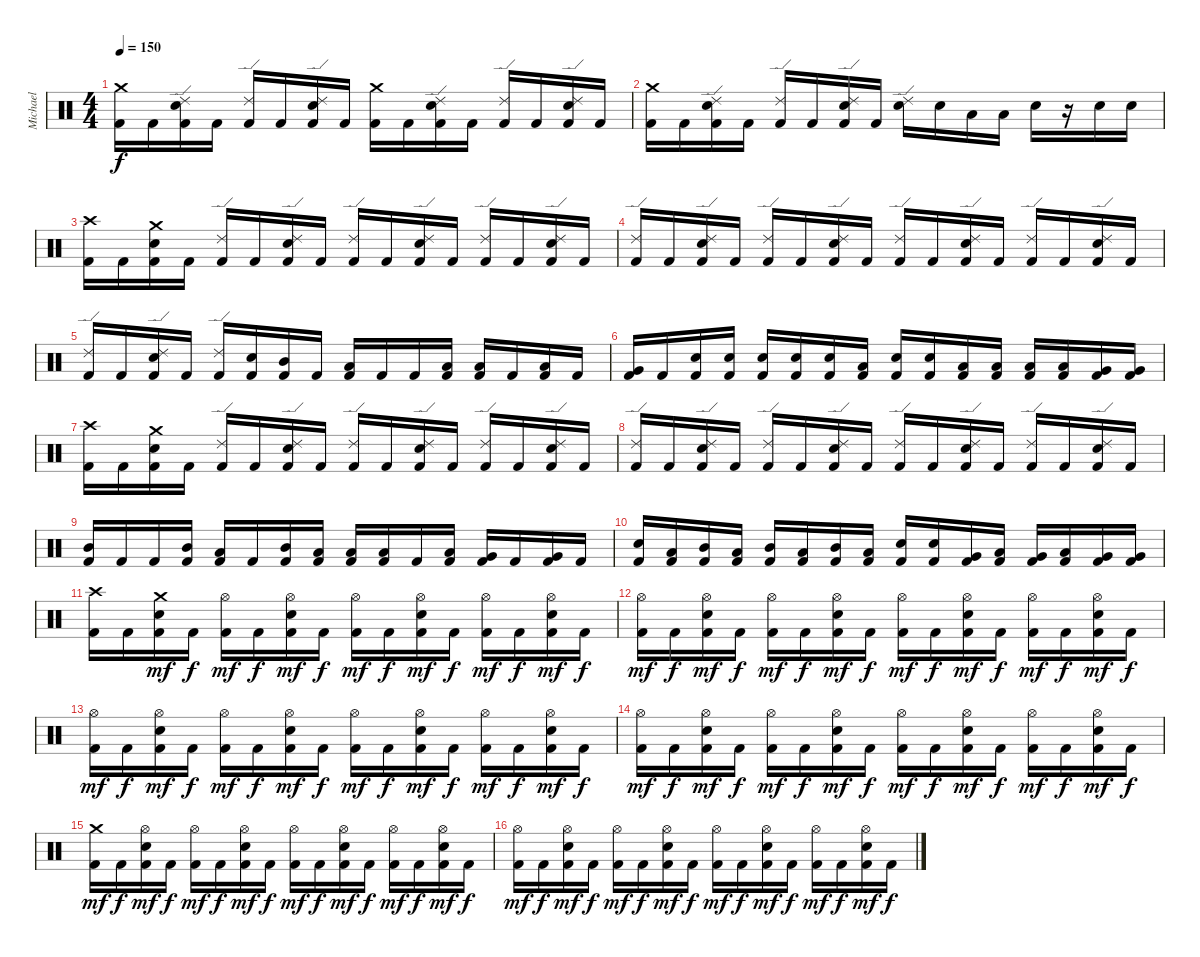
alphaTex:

\track ("Michael" "Michael") {instrument percussion}
\staff {score}
\articulation defaults
\ts (4 4)
\tempo 150
\clef neutral
\ks c
("Crash medium (hit)" "Kick (hit) 2").16{dy f} "Kick (hit) 2".16 ("Ride (edge) 2" "Electric Snare (hit)" "Kick (hit) 2").16 "Kick (hit) 2".16 ("Ride (edge) 2" "Kick (hit) 2").16 "Kick (hit) 2".16 ("Ride (edge) 2" "Electric Snare (hit)" "Kick (hit) 2").16 "Kick (hit) 2".16 ("Crash medium (hit)" "Kick (hit) 2").16 "Kick (hit) 2".16 ("Ride (edge) 2" "Electric Snare (hit)" "Kick (hit) 2").16 "Kick (hit) 2".16 ("Ride (edge) 2" "Kick (hit) 2").16 "Kick (hit) 2".16 ("Ride (edge) 2" "Electric Snare (hit)" "Kick (hit) 2").16 "Kick (hit) 2".16 |
("Crash medium (hit)" "Kick (hit) 2").16 "Kick (hit) 2".16 ("Ride (edge) 2" "Electric Snare (hit)" "Kick (hit) 2").16 "Kick (hit) 2".16 ("Ride (edge) 2" "Kick (hit) 2").16 "Kick (hit) 2".16 ("Ride (edge) 2" "Electric Snare (hit)" "Kick (hit) 2").16 "Kick (hit) 2".16 ("Ride (edge) 2" "Electric Snare (hit)").16 "Electric Snare (hit)".16 "Low Tom (hit)".16 "Low Tom (hit)".16 "Electric Snare (hit)".16 r.16 "Electric Snare (hit)".16 "Electric Snare (hit)".16 |
("Crash high (hit)" "Kick (hit) 2").16 "Kick (hit) 2".16 ("Crash medium (hit)" "Electric Snare (hit)" "Kick (hit) 2").16 "Kick (hit) 2".16 ("Ride (edge) 2" "Kick (hit) 2").16 "Kick (hit) 2".16 ("Ride (edge) 2" "Electric Snare (hit)" "Kick (hit) 2").16 "Kick (hit) 2".16 ("Ride (edge) 2" "Kick (hit) 2").16 "Kick (hit) 2".16 ("Ride (edge) 2" "Electric Snare (hit)" "Kick (hit) 2").16 "Kick (hit) 2".16 ("Ride (edge) 2" "Kick (hit) 2").16 "Kick (hit) 2".16 ("Ride (edge) 2" "Electric Snare (hit)" "Kick (hit) 2").16 "Kick (hit) 2".16 |
("Ride (edge) 2" "Kick (hit) 2").16 "Kick (hit) 2".16 ("Ride (edge) 2" "Electric Snare (hit)" "Kick (hit) 2").16 "Kick (hit) 2".16 ("Ride (edge) 2" "Kick (hit) 2").16 "Kick (hit) 2".16 ("Ride (edge) 2" "Electric Snare (hit)" "Kick (hit) 2").16 "Kick (hit) 2".16 ("Ride (edge) 2" "Kick (hit) 2").16 "Kick (hit) 2".16 ("Ride (edge) 2" "Electric Snare (hit)" "Kick (hit) 2").16 "Kick (hit) 2".16 ("Ride (edge) 2" "Kick (hit) 2").16 "Kick (hit) 2".16 ("Ride (edge) 2" "Electric Snare (hit)" "Kick (hit) 2").16 "Kick (hit) 2".16 |
("Ride (edge) 2" "Kick (hit) 2").16 "Kick (hit) 2".16 ("Ride (edge) 2" "Electric Snare (hit)" "Kick (hit) 2").16 "Kick (hit) 2".16 ("Ride (edge) 2" "Kick (hit) 2").16 ("Electric Snare (hit)" "Kick (hit) 2").16 ("Mid Tom (hit)" "Kick (hit) 2").16 "Kick (hit) 2".16 ("Low Tom (hit)" "Kick (hit) 2").16 "Kick (hit) 2".16 "Kick (hit) 2".16 ("Low Tom (hit)" "Kick (hit) 2").16 ("Low Tom (hit)" "Kick (hit) 2").16 "Kick (hit) 2".16 ("Low Tom (hit)" "Kick (hit) 2").16 "Kick (hit) 2".16 |
("Very Low Tom (hit)" "Kick (hit) 2").16 "Kick (hit) 2".16 ("Electric Snare (hit)" "Kick (hit) 2").16 ("Electric Snare (hit)" "Kick (hit) 2").16 ("Electric Snare (hit)" "Kick (hit) 2").16 ("Electric Snare (hit)" "Kick (hit) 2").16 ("Electric Snare (hit)" "Kick (hit) 2").16 ("Low Tom (hit)" "Kick (hit) 2").16 ("Electric Snare (hit)" "Kick (hit) 2").16 ("Electric Snare (hit)" "Kick (hit) 2").16 ("Low Tom (hit)" "Kick (hit) 2").16 ("Low Tom (hit)" "Kick (hit) 2").16 ("Low Tom (hit)" "Kick (hit) 2").16 ("Low Tom (hit)" "Kick (hit) 2").16 ("Very Low Tom (hit)" "Kick (hit) 2").16 ("Very Low Tom (hit)" "Kick (hit) 2").16 |
("Crash high (hit)" "Kick (hit) 2").16 "Kick (hit) 2".16 ("Crash medium (hit)" "Electric Snare (hit)" "Kick (hit) 2").16 "Kick (hit) 2".16 ("Ride (edge) 2" "Kick (hit) 2").16 "Kick (hit) 2".16 ("Ride (edge) 2" "Electric Snare (hit)" "Kick (hit) 2").16 "Kick (hit) 2".16 ("Ride (edge) 2" "Kick (hit) 2").16 "Kick (hit) 2".16 ("Ride (edge) 2" "Electric Snare (hit)" "Kick (hit) 2").16 "Kick (hit) 2".16 ("Ride (edge) 2" "Kick (hit) 2").16 "Kick (hit) 2".16 ("Ride (edge) 2" "Electric Snare (hit)" "Kick (hit) 2").16 "Kick (hit) 2".16 |
("Ride (edge) 2" "Kick (hit) 2").16 "Kick (hit) 2".16 ("Ride (edge) 2" "Electric Snare (hit)" "Kick (hit) 2").16 "Kick (hit) 2".16 ("Ride (edge) 2" "Kick (hit) 2").16 "Kick (hit) 2".16 ("Ride (edge) 2" "Electric Snare (hit)" "Kick (hit) 2").16 "Kick (hit) 2".16 ("Ride (edge) 2" "Kick (hit) 2").16 "Kick (hit) 2".16 ("Ride (edge) 2" "Electric Snare (hit)" "Kick (hit) 2").16 "Kick (hit) 2".16 ("Ride (edge) 2" "Kick (hit) 2").16 "Kick (hit) 2".16 ("Ride (edge) 2" "Electric Snare (hit)" "Kick (hit) 2").16 "Kick (hit) 2".16 |
("Mid Tom (hit)" "Kick (hit) 2").16 "Kick (hit) 2".16 "Kick (hit) 2".16 ("Mid Tom (hit)" "Kick (hit) 2").16 ("Low Tom (hit)" "Kick (hit) 2").16 "Kick (hit) 2".16 ("Mid Tom (hit)" "Kick (hit) 2").16 ("Low Tom (hit)" "Kick (hit) 2").16 ("Low Tom (hit)" "Kick (hit) 2").16 ("Low Tom (hit)" "Kick (hit) 2").16 "Kick (hit) 2".16 ("Low Tom (hit)" "Kick (hit) 2").16 ("Very Low Tom (hit)" "Kick (hit) 2").16 "Kick (hit) 2".16 ("Very Low Tom (hit)" "Kick (hit) 2").16 "Kick (hit) 2".16 |
("Electric Snare (hit)" "Kick (hit) 2").16 ("Low Tom (hit)" "Kick (hit) 2").16 ("Mid Tom (hit)" "Kick (hit) 2").16 ("Low Tom (hit)" "Kick (hit) 2").16 ("Mid Tom (hit)" "Kick (hit) 2").16 ("Low Tom (hit)" "Kick (hit) 2").16 ("Mid Tom (hit)" "Kick (hit) 2").16 ("Low Tom (hit)" "Kick (hit) 2").16 ("Electric Snare (hit)" "Kick (hit) 2").16 ("Electric Snare (hit)" "Kick (hit) 2").16 ("Very Low Tom (hit)" "Kick (hit) 2").16 ("Low Tom (hit)" "Kick (hit) 2").16 ("Very Low Tom (hit)" "Kick (hit) 2").16 ("Low Tom (hit)" "Kick (hit) 2").16 ("Very Low Tom (hit)" "Kick (hit) 2").16 ("Very Low Tom (hit)" "Kick (hit) 2").16 |
("Crash high (hit)" "Kick (hit) 2").16 "Kick (hit) 2".16 ("Crash medium (hit)" "Electric Snare (hit)" "Kick (hit) 2").16{dy mf} "Kick (hit) 2".16{dy f} ("Hi-Hat (open)" "Kick (hit) 2").16{dy mf} "Kick (hit) 2".16{dy f} ("Hi-Hat (open)" "Electric Snare (hit)" "Kick (hit) 2").16{dy mf} "Kick (hit) 2".16{dy f} ("Hi-Hat (open)" "Kick (hit) 2").16{dy mf} "Kick (hit) 2".16{dy f} ("Hi-Hat (open)" "Electric Snare (hit)" "Kick (hit) 2").16{dy mf} "Kick (hit) 2".16{dy f} ("Hi-Hat (open)" "Kick (hit) 2").16{dy mf} "Kick (hit) 2".16{dy f} ("Hi-Hat (open)" "Electric Snare (hit)" "Kick (hit) 2").16{dy mf} "Kick (hit) 2".16{dy f} |
("Hi-Hat (open)" "Kick (hit) 2").16{dy mf} "Kick (hit) 2".16{dy f} ("Hi-Hat (open)" "Electric Snare (hit)" "Kick (hit) 2").16{dy mf} "Kick (hit) 2".16{dy f} ("Hi-Hat (open)" "Kick (hit) 2").16{dy mf} "Kick (hit) 2".16{dy f} ("Hi-Hat (open)" "Electric Snare (hit)" "Kick (hit) 2").16{dy mf} "Kick (hit) 2".16{dy f} ("Hi-Hat (open)" "Kick (hit) 2").16{dy mf} "Kick (hit) 2".16{dy f} ("Hi-Hat (open)" "Electric Snare (hit)" "Kick (hit) 2").16{dy mf} "Kick (hit) 2".16{dy f} ("Hi-Hat (open)" "Kick (hit) 2").16{dy mf} "Kick (hit) 2".16{dy f} ("Hi-Hat (open)" "Electric Snare (hit)" "Kick (hit) 2").16{dy mf} "Kick (hit) 2".16{dy f} |
("Hi-Hat (open)" "Kick (hit) 2").16{dy mf} "Kick (hit) 2".16{dy f} ("Hi-Hat (open)" "Electric Snare (hit)" "Kick (hit) 2").16{dy mf} "Kick (hit) 2".16{dy f} ("Hi-Hat (open)" "Kick (hit) 2").16{dy mf} "Kick (hit) 2".16{dy f} ("Hi-Hat (open)" "Electric Snare (hit)" "Kick (hit) 2").16{dy mf} "Kick (hit) 2".16{dy f} ("Hi-Hat (open)" "Kick (hit) 2").16{dy mf} "Kick (hit) 2".16{dy f} ("Hi-Hat (open)" "Electric Snare (hit)" "Kick (hit) 2").16{dy mf} "Kick (hit) 2".16{dy f} ("Hi-Hat (open)" "Kick (hit) 2").16{dy mf} "Kick (hit) 2".16{dy f} ("Hi-Hat (open)" "Electric Snare (hit)" "Kick (hit) 2").16{dy mf} "Kick (hit) 2".16{dy f} |
("Hi-Hat (open)" "Kick (hit) 2").16{dy mf} "Kick (hit) 2".16{dy f} ("Hi-Hat (open)" "Electric Snare (hit)" "Kick (hit) 2").16{dy mf} "Kick (hit) 2".16{dy f} ("Hi-Hat (open)" "Kick (hit) 2").16{dy mf} "Kick (hit) 2".16{dy f} ("Hi-Hat (open)" "Electric Snare (hit)" "Kick (hit) 2").16{dy mf} "Kick (hit) 2".16{dy f} ("Hi-Hat (open)" "Kick (hit) 2").16{dy mf} "Kick (hit) 2".16{dy f} ("Hi-Hat (open)" "Electric Snare (hit)" "Kick (hit) 2").16{dy mf} "Kick (hit) 2".16{dy f} ("Hi-Hat (open)" "Kick (hit) 2").16{dy mf} "Kick (hit) 2".16{dy f} ("Hi-Hat (open)" "Electric Snare (hit)" "Kick (hit) 2").16{dy mf} "Kick (hit) 2".16{dy f} |
("Crash medium (hit)" "Kick (hit) 2").16{dy mf} "Kick (hit) 2".16{dy f} ("Hi-Hat (open)" "Electric Snare (hit)" "Kick (hit) 2").16{dy mf} "Kick (hit) 2".16{dy f} ("Hi-Hat (open)" "Kick (hit) 2").16{dy mf} "Kick (hit) 2".16{dy f} ("Hi-Hat (open)" "Electric Snare (hit)" "Kick (hit) 2").16{dy mf} "Kick (hit) 2".16{dy f} ("Hi-Hat (open)" "Kick (hit) 2").16{dy mf} "Kick (hit) 2".16{dy f} ("Hi-Hat (open)" "Electric Snare (hit)" "Kick (hit) 2").16{dy mf} "Kick (hit) 2".16{dy f} ("Hi-Hat (open)" "Kick (hit) 2").16{dy mf} "Kick (hit) 2".16{dy f} ("Hi-Hat (open)" "Electric Snare (hit)" "Kick (hit) 2").16{dy mf} "Kick (hit) 2".16{dy f} |
("Hi-Hat (open)" "Kick (hit) 2").16{dy mf} "Kick (hit) 2".16{dy f} ("Hi-Hat (open)" "Electric Snare (hit)" "Kick (hit) 2").16{dy mf} "Kick (hit) 2".16{dy f} ("Hi-Hat (open)" "Kick (hit) 2").16{dy mf} "Kick (hit) 2".16{dy f} ("Hi-Hat (open)" "Electric Snare (hit)" "Kick (hit) 2").16{dy mf} "Kick (hit) 2".16{dy f} ("Hi-Hat (open)" "Kick (hit) 2").16{dy mf} "Kick (hit) 2".16{dy f} ("Hi-Hat (open)" "Electric Snare (hit)" "Kick (hit) 2").16{dy mf} "Kick (hit) 2".16{dy f} ("Hi-Hat (open)" "Kick (hit) 2").16{dy mf} "Kick (hit) 2".16{dy f} ("Hi-Hat (open)" "Electric Snare (hit)" "Kick (hit) 2").16{dy mf} "Kick (hit) 2".16{dy f}
